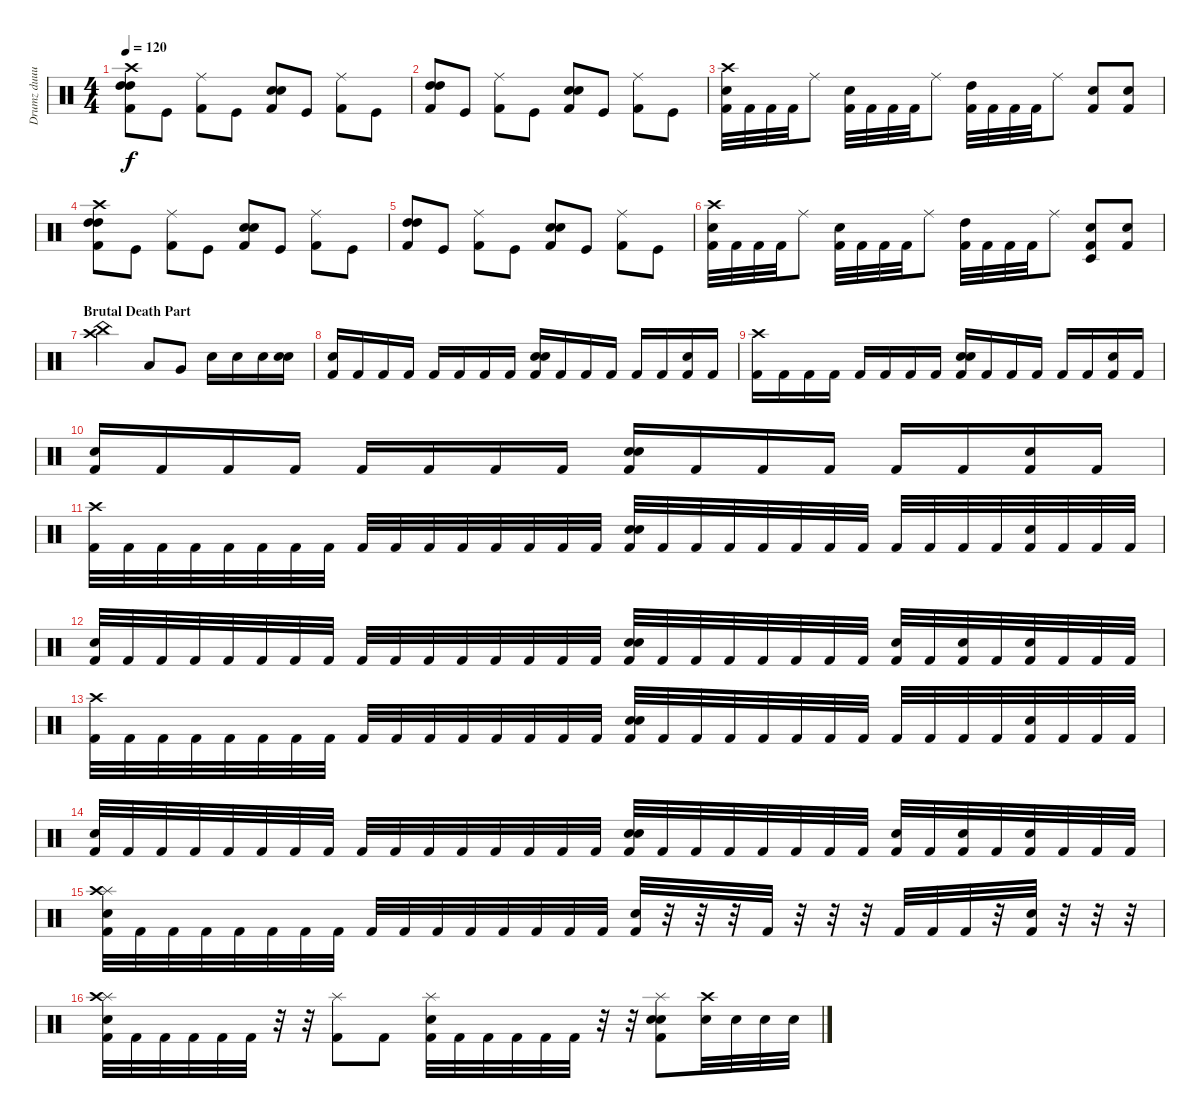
\track ("Drumz duuuuude" "Drumz duuu") {instrument percussion}
\staff {score}
\articulation defaults
\ts (4 4)
\tempo 120
\clef neutral
\ks c
("Crash high (hit)" "Kick (hit) 2" "High Tom (hit)" "High Tom (hit)").8{dy f} "Kick (hit)".8 ("Ride (middle)" "Kick (hit) 2").8 "Kick (hit)".8 ("Kick (hit) 2" "Snare (hit) 2" "Electric Snare (hit)").8 "Kick (hit)".8 ("Ride (middle)" "Kick (hit) 2").8 "Kick (hit)".8 |
("Kick (hit) 2" "High Tom (hit)" "High Tom (hit)").8 "Kick (hit)".8 ("Ride (middle)" "Kick (hit) 2").8 "Kick (hit)".8 ("Kick (hit) 2" "Snare (hit) 2" "Electric Snare (hit)").8 "Kick (hit)".8 ("Ride (middle)" "Kick (hit) 2").8 "Kick (hit)".8 |
("Crash high (hit)" "Kick (hit) 2" "Electric Snare (hit)").32 "Kick (hit) 2".32 "Kick (hit) 2".32 "Kick (hit) 2".32 "Ride (middle)".8 ("Kick (hit) 2" "Snare (hit) 2").32 "Kick (hit) 2".32 "Kick (hit) 2".32 "Kick (hit) 2".32 "Ride (middle)".8 ("Kick (hit) 2" "High Tom (hit)").32 "Kick (hit) 2".32 "Kick (hit) 2".32 "Kick (hit) 2".32 "Ride (middle)".8 ("Kick (hit) 2" "Electric Snare (hit)").8 ("Kick (hit) 2" "Electric Snare (hit)").8 |
("Crash high (hit)" "Kick (hit) 2" "High Tom (hit)" "High Tom (hit)").8 "Kick (hit)".8 ("Ride (middle)" "Kick (hit) 2").8 "Kick (hit)".8 ("Kick (hit) 2" "Snare (hit) 2" "Electric Snare (hit)").8 "Kick (hit)".8 ("Ride (middle)" "Kick (hit) 2").8 "Kick (hit)".8 |
("Kick (hit) 2" "High Tom (hit)" "High Tom (hit)").8 "Kick (hit)".8 ("Ride (middle)" "Kick (hit) 2").8 "Kick (hit)".8 ("Kick (hit) 2" "Snare (hit) 2" "Electric Snare (hit)").8 "Kick (hit)".8 ("Ride (middle)" "Kick (hit) 2").8 "Kick (hit)".8 |
("Crash high (hit)" "Kick (hit) 2" "Electric Snare (hit)").32 "Kick (hit) 2".32 "Kick (hit) 2".32 "Kick (hit) 2".32 "Ride (middle)".8 ("Kick (hit) 2" "Snare (hit) 2").32 "Kick (hit) 2".32 "Kick (hit) 2".32 "Kick (hit) 2".32 "Ride (middle)".8 ("Kick (hit) 2" "High Tom (hit)").32 "Kick (hit) 2".32 "Kick (hit) 2".32 "Kick (hit) 2".32 "Ride (middle)".8 ("Timbale low (hit)" "Kick (hit) 2" "Electric Snare (hit)").8 ("Kick (hit) 2" "Electric Snare (hit)").8 |
\section ("" "Brutal Death Part")
("Crash high (hit)" "China (hit)").2 "Low Tom (hit)".8 "Very Low Tom (hit)".8 "Electric Snare (hit)".16 "Electric Snare (hit)".16 "Electric Snare (hit)".16 ("Snare (hit) 2" "Electric Snare (hit)").16 |
("Kick (hit) 2" "Electric Snare (hit)").16 "Kick (hit) 2".16 "Kick (hit) 2".16 "Kick (hit) 2".16 "Kick (hit) 2".16 "Kick (hit) 2".16 "Kick (hit) 2".16 "Kick (hit) 2".16 ("Kick (hit) 2" "Electric Snare (hit)" "Snare (hit) 2").16 "Kick (hit) 2".16 "Kick (hit) 2".16 "Kick (hit) 2".16 "Kick (hit) 2".16 "Kick (hit) 2".16 ("Kick (hit) 2" "Electric Snare (hit)").16 "Kick (hit) 2".16 |
("Crash high (hit)" "Kick (hit) 2").16 "Kick (hit) 2".16 "Kick (hit) 2".16 "Kick (hit) 2".16 "Kick (hit) 2".16 "Kick (hit) 2".16 "Kick (hit) 2".16 "Kick (hit) 2".16 ("Kick (hit) 2" "Electric Snare (hit)" "Snare (hit) 2").16 "Kick (hit) 2".16 "Kick (hit) 2".16 "Kick (hit) 2".16 "Kick (hit) 2".16 "Kick (hit) 2".16 ("Kick (hit) 2" "Electric Snare (hit)").16 "Kick (hit) 2".16 |
("Kick (hit) 2" "Electric Snare (hit)").16 "Kick (hit) 2".16 "Kick (hit) 2".16 "Kick (hit) 2".16 "Kick (hit) 2".16 "Kick (hit) 2".16 "Kick (hit) 2".16 "Kick (hit) 2".16 ("Kick (hit) 2" "Electric Snare (hit)" "Snare (hit) 2").16 "Kick (hit) 2".16 "Kick (hit) 2".16 "Kick (hit) 2".16 "Kick (hit) 2".16 "Kick (hit) 2".16 ("Kick (hit) 2" "Electric Snare (hit)").16 "Kick (hit) 2".16 |
("Crash high (hit)" "Kick (hit) 2").32 "Kick (hit) 2".32 "Kick (hit) 2".32 "Kick (hit) 2".32 "Kick (hit) 2".32 "Kick (hit) 2".32 "Kick (hit) 2".32 "Kick (hit) 2".32 "Kick (hit) 2".32 "Kick (hit) 2".32 "Kick (hit) 2".32 "Kick (hit) 2".32 "Kick (hit) 2".32 "Kick (hit) 2".32 "Kick (hit) 2".32 "Kick (hit) 2".32 ("Kick (hit) 2" "Snare (hit) 2" "Electric Snare (hit)").32 "Kick (hit) 2".32 "Kick (hit) 2".32 "Kick (hit) 2".32 "Kick (hit) 2".32 "Kick (hit) 2".32 "Kick (hit) 2".32 "Kick (hit) 2".32 "Kick (hit) 2".32 "Kick (hit) 2".32 "Kick (hit) 2".32 "Kick (hit) 2".32 ("Kick (hit) 2" "Electric Snare (hit)").32 "Kick (hit) 2".32 "Kick (hit) 2".32 "Kick (hit) 2".32 |
("Kick (hit) 2" "Electric Snare (hit)").32 "Kick (hit) 2".32 "Kick (hit) 2".32 "Kick (hit) 2".32 "Kick (hit) 2".32 "Kick (hit) 2".32 "Kick (hit) 2".32 "Kick (hit) 2".32 "Kick (hit) 2".32 "Kick (hit) 2".32 "Kick (hit) 2".32 "Kick (hit) 2".32 "Kick (hit) 2".32 "Kick (hit) 2".32 "Kick (hit) 2".32 "Kick (hit) 2".32 ("Kick (hit) 2" "Snare (hit) 2" "Electric Snare (hit)").32 "Kick (hit) 2".32 "Kick (hit) 2".32 "Kick (hit) 2".32 "Kick (hit) 2".32 "Kick (hit) 2".32 "Kick (hit) 2".32 "Kick (hit) 2".32 ("Kick (hit) 2" "Electric Snare (hit)").32 "Kick (hit) 2".32 ("Kick (hit) 2" "Electric Snare (hit)").32 "Kick (hit) 2".32 ("Kick (hit) 2" "Electric Snare (hit)").32 "Kick (hit) 2".32 "Kick (hit) 2".32 "Kick (hit) 2".32 |
("Crash high (hit)" "Kick (hit) 2").32 "Kick (hit) 2".32 "Kick (hit) 2".32 "Kick (hit) 2".32 "Kick (hit) 2".32 "Kick (hit) 2".32 "Kick (hit) 2".32 "Kick (hit) 2".32 "Kick (hit) 2".32 "Kick (hit) 2".32 "Kick (hit) 2".32 "Kick (hit) 2".32 "Kick (hit) 2".32 "Kick (hit) 2".32 "Kick (hit) 2".32 "Kick (hit) 2".32 ("Kick (hit) 2" "Snare (hit) 2" "Electric Snare (hit)").32 "Kick (hit) 2".32 "Kick (hit) 2".32 "Kick (hit) 2".32 "Kick (hit) 2".32 "Kick (hit) 2".32 "Kick (hit) 2".32 "Kick (hit) 2".32 "Kick (hit) 2".32 "Kick (hit) 2".32 "Kick (hit) 2".32 "Kick (hit) 2".32 ("Kick (hit) 2" "Electric Snare (hit)").32 "Kick (hit) 2".32 "Kick (hit) 2".32 "Kick (hit) 2".32 |
("Kick (hit) 2" "Electric Snare (hit)").32 "Kick (hit) 2".32 "Kick (hit) 2".32 "Kick (hit) 2".32 "Kick (hit) 2".32 "Kick (hit) 2".32 "Kick (hit) 2".32 "Kick (hit) 2".32 "Kick (hit) 2".32 "Kick (hit) 2".32 "Kick (hit) 2".32 "Kick (hit) 2".32 "Kick (hit) 2".32 "Kick (hit) 2".32 "Kick (hit) 2".32 "Kick (hit) 2".32 ("Kick (hit) 2" "Snare (hit) 2" "Electric Snare (hit)").32 "Kick (hit) 2".32 "Kick (hit) 2".32 "Kick (hit) 2".32 "Kick (hit) 2".32 "Kick (hit) 2".32 "Kick (hit) 2".32 "Kick (hit) 2".32 ("Kick (hit) 2" "Electric Snare (hit)").32 "Kick (hit) 2".32 ("Kick (hit) 2" "Electric Snare (hit)").32 "Kick (hit) 2".32 ("Kick (hit) 2" "Electric Snare (hit)").32 "Kick (hit) 2".32 "Kick (hit) 2".32 "Kick (hit) 2".32 |
("Splash (hit)" "Kick (hit) 2" "Crash high (hit)" "Electric Snare (hit)").32 "Kick (hit) 2".32 "Kick (hit) 2".32 "Kick (hit) 2".32 "Kick (hit) 2".32 "Kick (hit) 2".32 "Kick (hit) 2".32 "Kick (hit) 2".32 "Kick (hit) 2".32 "Kick (hit) 2".32 "Kick (hit) 2".32 "Kick (hit) 2".32 "Kick (hit) 2".32 "Kick (hit) 2".32 "Kick (hit) 2".32 "Kick (hit) 2".32 ("Kick (hit) 2" "Snare (hit) 2").32 r.32 r.32 r.32 "Kick (hit) 2".32 r.32 r.32 r.32 "Kick (hit) 2".32 "Kick (hit) 2".32 "Kick (hit) 2".32 r.32 ("Kick (hit) 2" "Snare (hit) 2").32 r.32 r.32 r.32 |
("Splash (hit)" "Kick (hit) 2" "Crash high (hit)" "Snare (hit) 2").32 "Kick (hit) 2".32 "Kick (hit) 2".32 "Kick (hit) 2".32 "Kick (hit) 2".32 "Kick (hit) 2".32 r.32 r.32 ("Splash (hit)" "Kick (hit) 2").8 "Kick (hit) 2".8 ("Splash (hit)" "Kick (hit) 2" "Snare (hit) 2").32 "Kick (hit) 2".32 "Kick (hit) 2".32 "Kick (hit) 2".32 "Kick (hit) 2".32 "Kick (hit) 2".32 r.32 r.32 ("Splash (hit)" "Kick (hit) 2" "Electric Snare (hit)" "Snare (hit) 2").8 ("Crash high (hit)" "Electric Snare (hit)").32 "Electric Snare (hit)".32 "Electric Snare (hit)".32 "Electric Snare (hit)".32
